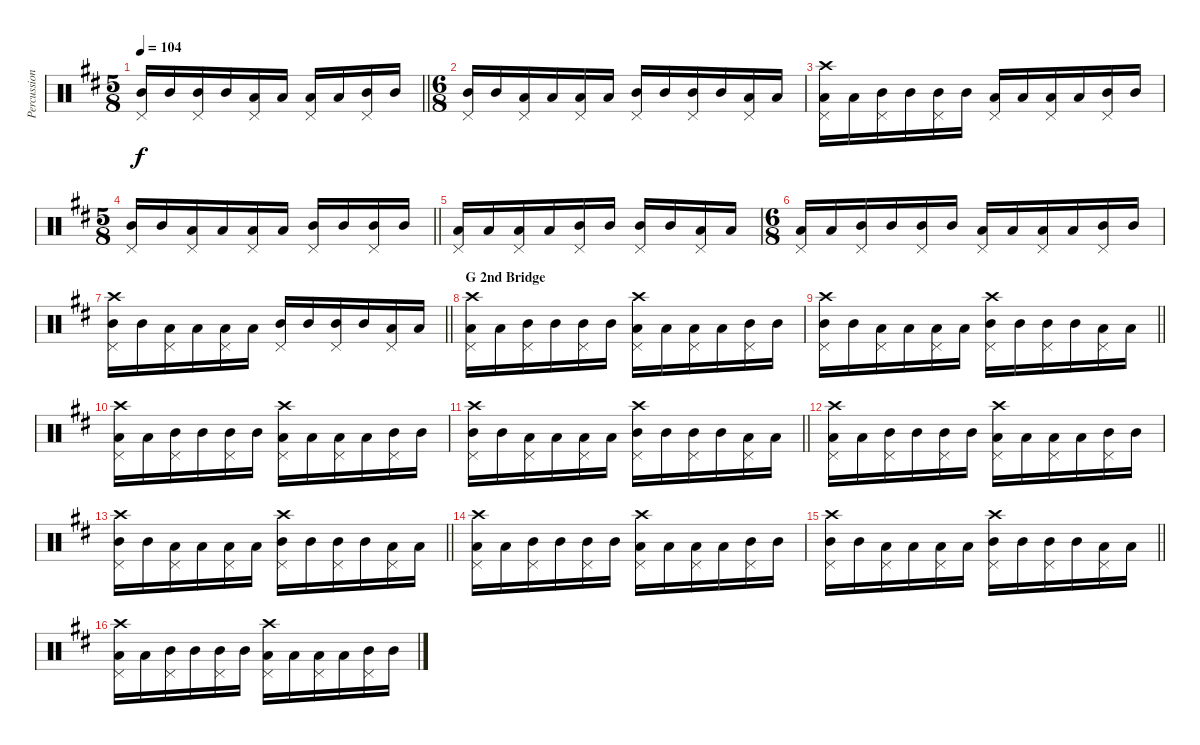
\track ("Percussion" "Percussion") {instrument percussion}
\staff {score}
\articulation defaults
\ts (5 8)
\tempo 104
\clef neutral
\barLineRight lightlight
\ks d
("Pedal Hi-Hat (hit)" "Mid Tom (hit)").16{dy f} "Mid Tom (hit)".16 ("Pedal Hi-Hat (hit)" "Mid Tom (hit)").16 "Mid Tom (hit)".16 ("Pedal Hi-Hat (hit)" "Low Tom (hit)").16 "Low Tom (hit)".16 ("Pedal Hi-Hat (hit)" "Low Tom (hit)").16 "Low Tom (hit)".16 ("Pedal Hi-Hat (hit)" "Mid Tom (hit)").16 "Mid Tom (hit)".16 |
\ts (6 8)
("Pedal Hi-Hat (hit)" "Mid Tom (hit)").16 "Mid Tom (hit)".16 ("Pedal Hi-Hat (hit)" "Low Tom (hit)").16 "Low Tom (hit)".16 ("Pedal Hi-Hat (hit)" "Low Tom (hit)").16 "Low Tom (hit)".16 ("Pedal Hi-Hat (hit)" "Mid Tom (hit)").16 "Mid Tom (hit)".16 ("Pedal Hi-Hat (hit)" "Mid Tom (hit)").16 "Mid Tom (hit)".16 ("Pedal Hi-Hat (hit)" "Low Tom (hit)").16 "Low Tom (hit)".16 |
("Pedal Hi-Hat (hit)" "Crash high (hit)" "Low Tom (hit)").16 "Low Tom (hit)".16 ("Pedal Hi-Hat (hit)" "Mid Tom (hit)").16 "Mid Tom (hit)".16 ("Pedal Hi-Hat (hit)" "Mid Tom (hit)").16 "Mid Tom (hit)".16 ("Pedal Hi-Hat (hit)" "Low Tom (hit)").16 "Low Tom (hit)".16 ("Pedal Hi-Hat (hit)" "Low Tom (hit)").16 "Low Tom (hit)".16 ("Pedal Hi-Hat (hit)" "Mid Tom (hit)").16 "Mid Tom (hit)".16 |
\ts (5 8)
\barLineRight lightlight
("Pedal Hi-Hat (hit)" "Mid Tom (hit)").16 "Mid Tom (hit)".16 ("Pedal Hi-Hat (hit)" "Low Tom (hit)").16 "Low Tom (hit)".16 ("Pedal Hi-Hat (hit)" "Low Tom (hit)").16 "Low Tom (hit)".16 ("Pedal Hi-Hat (hit)" "Mid Tom (hit)").16 "Mid Tom (hit)".16 ("Pedal Hi-Hat (hit)" "Mid Tom (hit)").16 "Mid Tom (hit)".16 |
("Pedal Hi-Hat (hit)" "Low Tom (hit)").16 "Low Tom (hit)".16 ("Pedal Hi-Hat (hit)" "Low Tom (hit)").16 "Low Tom (hit)".16 ("Pedal Hi-Hat (hit)" "Mid Tom (hit)").16 "Mid Tom (hit)".16 ("Pedal Hi-Hat (hit)" "Mid Tom (hit)").16 "Mid Tom (hit)".16 ("Pedal Hi-Hat (hit)" "Low Tom (hit)").16 "Low Tom (hit)".16 |
\ts (6 8)
("Pedal Hi-Hat (hit)" "Low Tom (hit)").16 "Low Tom (hit)".16 ("Pedal Hi-Hat (hit)" "Mid Tom (hit)").16 "Mid Tom (hit)".16 ("Pedal Hi-Hat (hit)" "Mid Tom (hit)").16 "Mid Tom (hit)".16 ("Pedal Hi-Hat (hit)" "Low Tom (hit)").16 "Low Tom (hit)".16 ("Pedal Hi-Hat (hit)" "Low Tom (hit)").16 "Low Tom (hit)".16 ("Pedal Hi-Hat (hit)" "Mid Tom (hit)").16 "Mid Tom (hit)".16 |
\barLineRight lightlight
("Pedal Hi-Hat (hit)" "Crash high (hit)" "Mid Tom (hit)").16 "Mid Tom (hit)".16 ("Pedal Hi-Hat (hit)" "Low Tom (hit)").16 "Low Tom (hit)".16 ("Pedal Hi-Hat (hit)" "Low Tom (hit)").16 "Low Tom (hit)".16 ("Pedal Hi-Hat (hit)" "Mid Tom (hit)").16 "Mid Tom (hit)".16 ("Pedal Hi-Hat (hit)" "Mid Tom (hit)").16 "Mid Tom (hit)".16 ("Pedal Hi-Hat (hit)" "Low Tom (hit)").16 "Low Tom (hit)".16 |
\section ("" "G 2nd Bridge")
("Pedal Hi-Hat (hit)" "Crash high (hit)" "Low Tom (hit)").16 "Low Tom (hit)".16 ("Pedal Hi-Hat (hit)" "Mid Tom (hit)").16 "Mid Tom (hit)".16 ("Pedal Hi-Hat (hit)" "Mid Tom (hit)").16 "Mid Tom (hit)".16 ("Pedal Hi-Hat (hit)" "Crash high (hit)" "Low Tom (hit)").16 "Low Tom (hit)".16 ("Pedal Hi-Hat (hit)" "Low Tom (hit)").16 "Low Tom (hit)".16 ("Pedal Hi-Hat (hit)" "Mid Tom (hit)").16 "Mid Tom (hit)".16 |
\barLineRight lightlight
("Pedal Hi-Hat (hit)" "Crash high (hit)" "Mid Tom (hit)").16 "Mid Tom (hit)".16 ("Pedal Hi-Hat (hit)" "Low Tom (hit)").16 "Low Tom (hit)".16 ("Pedal Hi-Hat (hit)" "Low Tom (hit)").16 "Low Tom (hit)".16 ("Pedal Hi-Hat (hit)" "Crash high (hit)" "Mid Tom (hit)").16 "Mid Tom (hit)".16 ("Pedal Hi-Hat (hit)" "Mid Tom (hit)").16 "Mid Tom (hit)".16 ("Pedal Hi-Hat (hit)" "Low Tom (hit)").16 "Low Tom (hit)".16 |
("Pedal Hi-Hat (hit)" "Crash high (hit)" "Low Tom (hit)").16 "Low Tom (hit)".16 ("Pedal Hi-Hat (hit)" "Mid Tom (hit)").16 "Mid Tom (hit)".16 ("Pedal Hi-Hat (hit)" "Mid Tom (hit)").16 "Mid Tom (hit)".16 ("Pedal Hi-Hat (hit)" "Crash high (hit)" "Low Tom (hit)").16 "Low Tom (hit)".16 ("Pedal Hi-Hat (hit)" "Low Tom (hit)").16 "Low Tom (hit)".16 ("Pedal Hi-Hat (hit)" "Mid Tom (hit)").16 "Mid Tom (hit)".16 |
\barLineRight lightlight
("Pedal Hi-Hat (hit)" "Crash high (hit)" "Mid Tom (hit)").16 "Mid Tom (hit)".16 ("Pedal Hi-Hat (hit)" "Low Tom (hit)").16 "Low Tom (hit)".16 ("Pedal Hi-Hat (hit)" "Low Tom (hit)").16 "Low Tom (hit)".16 ("Pedal Hi-Hat (hit)" "Crash high (hit)" "Mid Tom (hit)").16 "Mid Tom (hit)".16 ("Pedal Hi-Hat (hit)" "Mid Tom (hit)").16 "Mid Tom (hit)".16 ("Pedal Hi-Hat (hit)" "Low Tom (hit)").16 "Low Tom (hit)".16 |
("Pedal Hi-Hat (hit)" "Crash high (hit)" "Low Tom (hit)").16 "Low Tom (hit)".16 ("Pedal Hi-Hat (hit)" "Mid Tom (hit)").16 "Mid Tom (hit)".16 ("Pedal Hi-Hat (hit)" "Mid Tom (hit)").16 "Mid Tom (hit)".16 ("Pedal Hi-Hat (hit)" "Crash high (hit)" "Low Tom (hit)").16 "Low Tom (hit)".16 ("Pedal Hi-Hat (hit)" "Low Tom (hit)").16 "Low Tom (hit)".16 ("Pedal Hi-Hat (hit)" "Mid Tom (hit)").16 "Mid Tom (hit)".16 |
\barLineRight lightlight
("Pedal Hi-Hat (hit)" "Crash high (hit)" "Mid Tom (hit)").16 "Mid Tom (hit)".16 ("Pedal Hi-Hat (hit)" "Low Tom (hit)").16 "Low Tom (hit)".16 ("Pedal Hi-Hat (hit)" "Low Tom (hit)").16 "Low Tom (hit)".16 ("Pedal Hi-Hat (hit)" "Crash high (hit)" "Mid Tom (hit)").16 "Mid Tom (hit)".16 ("Pedal Hi-Hat (hit)" "Mid Tom (hit)").16 "Mid Tom (hit)".16 ("Pedal Hi-Hat (hit)" "Low Tom (hit)").16 "Low Tom (hit)".16 |
("Pedal Hi-Hat (hit)" "Crash high (hit)" "Low Tom (hit)").16 "Low Tom (hit)".16 ("Pedal Hi-Hat (hit)" "Mid Tom (hit)").16 "Mid Tom (hit)".16 ("Pedal Hi-Hat (hit)" "Mid Tom (hit)").16 "Mid Tom (hit)".16 ("Pedal Hi-Hat (hit)" "Crash high (hit)" "Low Tom (hit)").16 "Low Tom (hit)".16 ("Pedal Hi-Hat (hit)" "Low Tom (hit)").16 "Low Tom (hit)".16 ("Pedal Hi-Hat (hit)" "Mid Tom (hit)").16 "Mid Tom (hit)".16 |
\barLineRight lightlight
("Pedal Hi-Hat (hit)" "Crash high (hit)" "Mid Tom (hit)").16 "Mid Tom (hit)".16 ("Pedal Hi-Hat (hit)" "Low Tom (hit)").16 "Low Tom (hit)".16 ("Pedal Hi-Hat (hit)" "Low Tom (hit)").16 "Low Tom (hit)".16 ("Pedal Hi-Hat (hit)" "Crash high (hit)" "Mid Tom (hit)").16 "Mid Tom (hit)".16 ("Pedal Hi-Hat (hit)" "Mid Tom (hit)").16 "Mid Tom (hit)".16 ("Pedal Hi-Hat (hit)" "Low Tom (hit)").16 "Low Tom (hit)".16 |
("Pedal Hi-Hat (hit)" "Crash high (hit)" "Low Tom (hit)").16 "Low Tom (hit)".16 ("Pedal Hi-Hat (hit)" "Mid Tom (hit)").16 "Mid Tom (hit)".16 ("Pedal Hi-Hat (hit)" "Mid Tom (hit)").16 "Mid Tom (hit)".16 ("Pedal Hi-Hat (hit)" "Crash high (hit)" "Low Tom (hit)").16 "Low Tom (hit)".16 ("Pedal Hi-Hat (hit)" "Low Tom (hit)").16 "Low Tom (hit)".16 ("Pedal Hi-Hat (hit)" "Mid Tom (hit)").16 "Mid Tom (hit)".16
